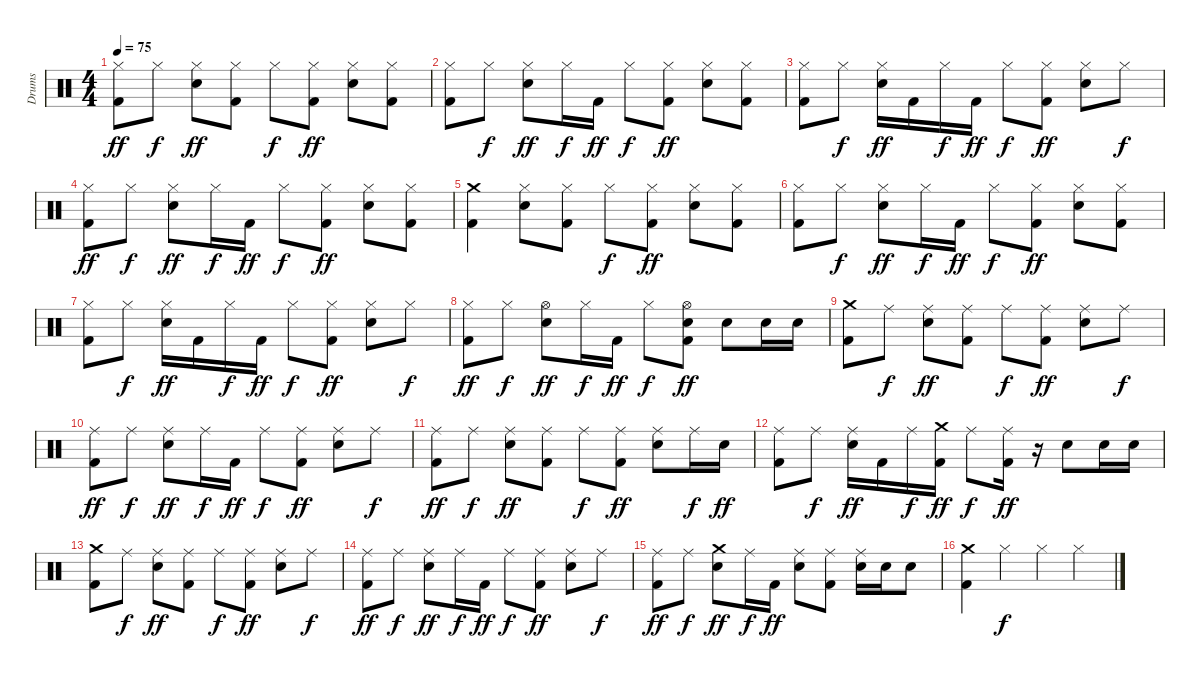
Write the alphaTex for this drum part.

\track ("Drums" "Drums") {instrument percussion}
\staff {score}
\articulation defaults
\ts (4 4)
\tempo 75
\clef neutral
\ks c
("Hi-Hat (closed)" "Kick (hit) 2").8{dy ff} "Hi-Hat (closed)".8{dy f} ("Hi-Hat (closed)" "Electric Snare (hit)").8{dy ff} ("Hi-Hat (closed)" "Kick (hit) 2").8 "Hi-Hat (closed)".8{dy f} ("Hi-Hat (closed)" "Kick (hit) 2").8{dy ff} ("Hi-Hat (closed)" "Electric Snare (hit)").8 ("Hi-Hat (closed)" "Kick (hit) 2").8 |
("Hi-Hat (closed)" "Kick (hit) 2").8 "Hi-Hat (closed)".8{dy f} ("Hi-Hat (closed)" "Electric Snare (hit)").8{dy ff} "Hi-Hat (closed)".16{dy f} "Kick (hit) 2".16{dy ff} "Hi-Hat (closed)".8{dy f} ("Hi-Hat (closed)" "Kick (hit) 2").8{dy ff} ("Hi-Hat (closed)" "Electric Snare (hit)").8 ("Hi-Hat (closed)" "Kick (hit) 2").8 |
("Hi-Hat (closed)" "Kick (hit) 2").8 "Hi-Hat (closed)".8{dy f} ("Hi-Hat (closed)" "Electric Snare (hit)").16{dy ff} "Kick (hit) 2".16 "Hi-Hat (closed)".16{dy f} "Kick (hit) 2".16{dy ff} "Hi-Hat (closed)".8{dy f} ("Hi-Hat (closed)" "Kick (hit) 2").8{dy ff} ("Hi-Hat (closed)" "Electric Snare (hit)").8 "Hi-Hat (closed)".8{dy f} |
("Hi-Hat (closed)" "Kick (hit) 2").8{dy ff} "Hi-Hat (closed)".8{dy f} ("Hi-Hat (closed)" "Electric Snare (hit)").8{dy ff} "Hi-Hat (closed)".16{dy f} "Kick (hit) 2".16{dy ff} "Hi-Hat (closed)".8{dy f} ("Hi-Hat (closed)" "Kick (hit) 2").8{dy ff} ("Hi-Hat (closed)" "Electric Snare (hit)").8 ("Hi-Hat (closed)" "Kick (hit) 2").8 |
("Crash medium (hit)" "Kick (hit) 2").4 ("Hi-Hat (closed)" "Electric Snare (hit)").8 ("Hi-Hat (closed)" "Kick (hit) 2").8 "Hi-Hat (closed)".8{dy f} ("Hi-Hat (closed)" "Kick (hit) 2").8{dy ff} ("Hi-Hat (closed)" "Electric Snare (hit)").8 ("Hi-Hat (closed)" "Kick (hit) 2").8 |
("Hi-Hat (closed)" "Kick (hit) 2").8 "Hi-Hat (closed)".8{dy f} ("Hi-Hat (closed)" "Electric Snare (hit)").8{dy ff} "Hi-Hat (closed)".16{dy f} "Kick (hit) 2".16{dy ff} "Hi-Hat (closed)".8{dy f} ("Hi-Hat (closed)" "Kick (hit) 2").8{dy ff} ("Hi-Hat (closed)" "Electric Snare (hit)").8 ("Hi-Hat (closed)" "Kick (hit) 2").8 |
("Hi-Hat (closed)" "Kick (hit) 2").8 "Hi-Hat (closed)".8{dy f} ("Hi-Hat (closed)" "Electric Snare (hit)").16{dy ff} "Kick (hit) 2".16 "Hi-Hat (closed)".16{dy f} "Kick (hit) 2".16{dy ff} "Hi-Hat (closed)".8{dy f} ("Hi-Hat (closed)" "Kick (hit) 2").8{dy ff} ("Hi-Hat (closed)" "Electric Snare (hit)").8 "Hi-Hat (closed)".8{dy f} |
("Hi-Hat (closed)" "Kick (hit) 2").8{dy ff} "Hi-Hat (closed)".8{dy f} ("Hi-Hat (open)" "Electric Snare (hit)").8{dy ff} "Hi-Hat (closed)".16{dy f} "Kick (hit) 2".16{dy ff} "Hi-Hat (closed)".8{dy f} ("Hi-Hat (open)" "Electric Snare (hit)" "Kick (hit) 2").8{dy ff} "Electric Snare (hit)".8 "Electric Snare (hit)".16 "Electric Snare (hit)".16 |
("Crash medium (hit)" "Kick (hit) 2").8 "Ride (middle)".8{dy f} ("Ride (middle)" "Electric Snare (hit)").8{dy ff} ("Ride (middle)" "Kick (hit) 2").8 "Ride (middle)".8{dy f} ("Ride (middle)" "Kick (hit) 2").8{dy ff} ("Ride (middle)" "Electric Snare (hit)").8 "Ride (middle)".8{dy f} |
("Ride (middle)" "Kick (hit) 2").8{dy ff} "Ride (middle)".8{dy f} ("Ride (middle)" "Electric Snare (hit)").8{dy ff} "Ride (middle)".16{dy f} "Kick (hit) 2".16{dy ff} "Ride (middle)".8{dy f} ("Ride (middle)" "Kick (hit) 2").8{dy ff} ("Ride (middle)" "Electric Snare (hit)").8 "Ride (middle)".8{dy f} |
("Ride (middle)" "Kick (hit) 2").8{dy ff} "Ride (middle)".8{dy f} ("Ride (middle)" "Electric Snare (hit)").8{dy ff} ("Ride (middle)" "Kick (hit) 2").8 "Ride (middle)".8{dy f} ("Ride (middle)" "Kick (hit) 2").8{dy ff} ("Ride (middle)" "Electric Snare (hit)").8 "Ride (middle)".16{dy f} "Electric Snare (hit)".16{dy ff} |
("Ride (middle)" "Kick (hit) 2").8 "Ride (middle)".8{dy f} ("Ride (middle)" "Electric Snare (hit)").16{dy ff} "Kick (hit) 2".16 "Ride (middle)".16{dy f} ("Crash medium (hit)" "Kick (hit) 2").16{dy ff} "Ride (middle)".8{dy f} ("Ride (middle)" "Kick (hit) 2").16{dy ff} r.16 "Electric Snare (hit)".8 "Electric Snare (hit)".16 "Electric Snare (hit)".16 |
("Crash medium (hit)" "Kick (hit) 2").8 "Ride (middle)".8{dy f} ("Ride (middle)" "Electric Snare (hit)").8{dy ff} ("Ride (middle)" "Kick (hit) 2").8 "Ride (middle)".8{dy f} ("Ride (middle)" "Kick (hit) 2").8{dy ff} ("Ride (middle)" "Electric Snare (hit)").8 "Ride (middle)".8{dy f} |
("Ride (middle)" "Kick (hit) 2").8{dy ff} "Ride (middle)".8{dy f} ("Ride (middle)" "Electric Snare (hit)").8{dy ff} "Ride (middle)".16{dy f} "Kick (hit) 2".16{dy ff} "Ride (middle)".8{dy f} ("Ride (middle)" "Kick (hit) 2").8{dy ff} ("Ride (middle)" "Electric Snare (hit)").8 "Ride (middle)".8{dy f} |
("Ride (middle)" "Kick (hit) 2").8{dy ff} "Ride (middle)".8{dy f} ("Crash medium (hit)" "Electric Snare (hit)").8{dy ff} "Ride (middle)".16{dy f} "Kick (hit) 2".16{dy ff} ("Ride (middle)" "Electric Snare (hit)").8 ("Ride (middle)" "Kick (hit) 2").8 ("Ride (middle)" "Electric Snare (hit)").16 "Electric Snare (hit)".16 "Electric Snare (hit)".8 |
("Crash medium (hit)" "Kick (hit) 2").4 "Hi-Hat (closed)".4{dy f} "Hi-Hat (closed)".4 "Hi-Hat (closed)".4
